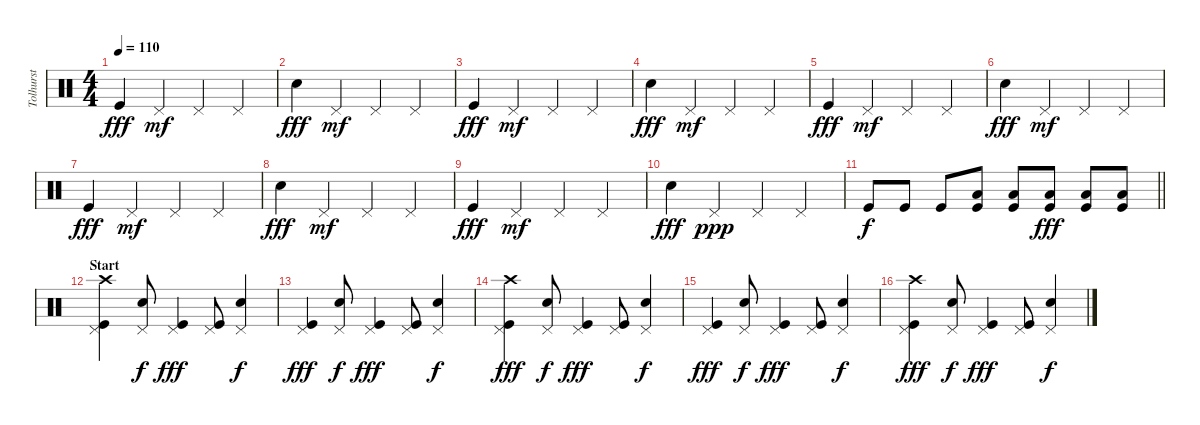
\track ("Tolhurst" "Tolhurst") {instrument percussion}
\staff {score}
\articulation defaults
\ts (4 4)
\tempo 110
\clef neutral
\ks c "Kick (hit)".4{dy fff} "Pedal Hi-Hat (hit)".4{dy mf} "Pedal Hi-Hat (hit)".4 "Pedal Hi-Hat (hit)".4
|
"Electric Snare (hit)".4{dy fff} "Pedal Hi-Hat (hit)".4{dy mf} "Pedal Hi-Hat (hit)".4 "Pedal Hi-Hat (hit)".4 |
"Kick (hit)".4{dy fff} "Pedal Hi-Hat (hit)".4{dy mf} "Pedal Hi-Hat (hit)".4 "Pedal Hi-Hat (hit)".4 |
"Electric Snare (hit)".4{dy fff} "Pedal Hi-Hat (hit)".4{dy mf} "Pedal Hi-Hat (hit)".4 "Pedal Hi-Hat (hit)".4 |
"Kick (hit)".4{dy fff} "Pedal Hi-Hat (hit)".4{dy mf} "Pedal Hi-Hat (hit)".4 "Pedal Hi-Hat (hit)".4 |
"Electric Snare (hit)".4{dy fff} "Pedal Hi-Hat (hit)".4{dy mf} "Pedal Hi-Hat (hit)".4 "Pedal Hi-Hat (hit)".4 |
"Kick (hit)".4{dy fff} "Pedal Hi-Hat (hit)".4{dy mf} "Pedal Hi-Hat (hit)".4 "Pedal Hi-Hat (hit)".4 |
"Electric Snare (hit)".4{dy fff} "Pedal Hi-Hat (hit)".4{dy mf} "Pedal Hi-Hat (hit)".4 "Pedal Hi-Hat (hit)".4 |
"Kick (hit)".4{dy fff} "Pedal Hi-Hat (hit)".4{dy mf} "Pedal Hi-Hat (hit)".4 "Pedal Hi-Hat (hit)".4 |
"Electric Snare (hit)".4{dy fff} "Pedal Hi-Hat (hit)".4{dy ppp} "Pedal Hi-Hat (hit)".4 "Pedal Hi-Hat (hit)".4 |
\barLineRight lightlight "Kick (hit)".8{dy f} "Kick (hit)".8 "Kick (hit)".8
("Low Floor Tom (hit)" "Kick (hit)").8 ("Low Floor Tom (hit)" "Kick (hit)").8 ("Low Floor Tom (hit)" "Kick (hit)").8{dy fff} ("Low Floor Tom (hit)" "Kick (hit)").8 ("Low Floor Tom (hit)" "Kick (hit)").8 |
\section ("" "Start")
("Crash high (hit)" "Pedal Hi-Hat (hit)" "Kick (hit)").4 ("Pedal Hi-Hat (hit)" "Electric Snare (hit)").8{dy f} ("Pedal Hi-Hat (hit)" "Kick (hit)").4{dy fff} ("Pedal Hi-Hat (hit)" "Kick (hit)").8 ("Pedal Hi-Hat (hit)" "Electric Snare (hit)").4{dy f} |
("Pedal Hi-Hat (hit)" "Kick (hit)").4{dy fff} ("Pedal Hi-Hat (hit)" "Electric Snare (hit)").8{dy f} ("Pedal Hi-Hat (hit)" "Kick (hit)").4{dy fff} ("Pedal Hi-Hat (hit)" "Kick (hit)").8 ("Pedal Hi-Hat (hit)" "Electric Snare (hit)").4{dy f} |
("Crash high (hit)" "Pedal Hi-Hat (hit)" "Kick (hit)").4{dy fff} ("Pedal Hi-Hat (hit)" "Electric Snare (hit)").8{dy f} ("Pedal Hi-Hat (hit)" "Kick (hit)").4{dy fff} ("Pedal Hi-Hat (hit)" "Kick (hit)").8 ("Pedal Hi-Hat (hit)" "Electric Snare (hit)").4{dy f} |
("Pedal Hi-Hat (hit)" "Kick (hit)").4{dy fff} ("Pedal Hi-Hat (hit)" "Electric Snare (hit)").8{dy f} ("Pedal Hi-Hat (hit)" "Kick (hit)").4{dy fff} ("Pedal Hi-Hat (hit)" "Kick (hit)").8 ("Pedal Hi-Hat (hit)" "Electric Snare (hit)").4{dy f} |
("Crash high (hit)" "Pedal Hi-Hat (hit)" "Kick (hit)").4{dy fff} ("Pedal Hi-Hat (hit)" "Electric Snare (hit)").8{dy f} ("Pedal Hi-Hat (hit)" "Kick (hit)").4{dy fff} ("Pedal Hi-Hat (hit)" "Kick (hit)").8 ("Pedal Hi-Hat (hit)" "Electric Snare (hit)").4{dy f}
